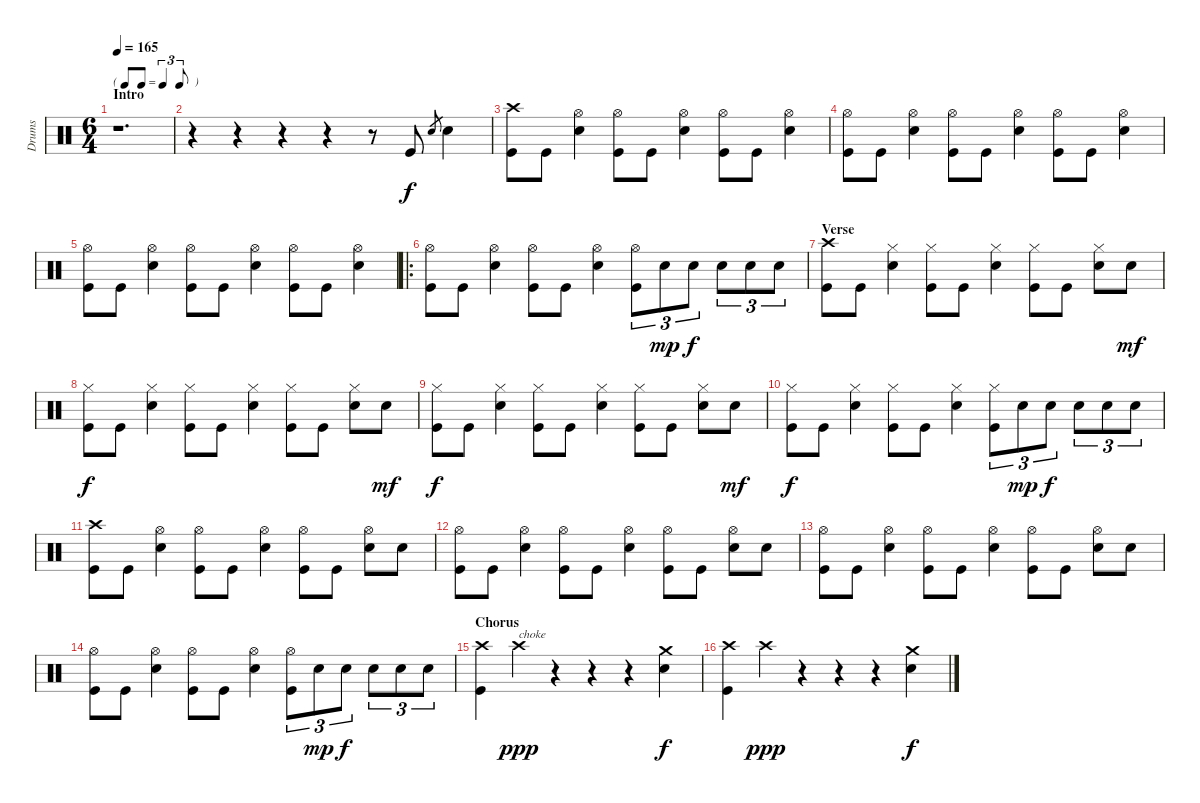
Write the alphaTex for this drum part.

\track ("Drums" "Drums") {instrument percussion}
\staff {score}
\articulation defaults
\ts (6 4)
\tf triplet8th
\section ("" "Intro")
\tempo 165
\clef neutral
\ks c
r.1{d dy f} |
r.4 r.4 r.4 r.4 r.8 "Kick (hit)".8 "Electric Snare (hit)".8{gr} "Electric Snare (hit)".4 |
("Crash high (hit)" "Kick (hit)").8 "Kick (hit)".8 ("Hi-Hat (open)" "Electric Snare (hit)").4 ("Hi-Hat (open)" "Kick (hit)").8 "Kick (hit)".8 ("Hi-Hat (open)" "Electric Snare (hit)").4 ("Hi-Hat (open)" "Kick (hit)").8 "Kick (hit)".8 ("Hi-Hat (open)" "Electric Snare (hit)").4 |
("Hi-Hat (open)" "Kick (hit)").8 "Kick (hit)".8 ("Hi-Hat (open)" "Electric Snare (hit)").4 ("Hi-Hat (open)" "Kick (hit)").8 "Kick (hit)".8 ("Hi-Hat (open)" "Electric Snare (hit)").4 ("Hi-Hat (open)" "Kick (hit)").8 "Kick (hit)".8 ("Hi-Hat (open)" "Electric Snare (hit)").4 |
("Hi-Hat (open)" "Kick (hit)").8 "Kick (hit)".8 ("Hi-Hat (open)" "Electric Snare (hit)").4 ("Hi-Hat (open)" "Kick (hit)").8 "Kick (hit)".8 ("Hi-Hat (open)" "Electric Snare (hit)").4 ("Hi-Hat (open)" "Kick (hit)").8 "Kick (hit)".8 ("Hi-Hat (open)" "Electric Snare (hit)").4 |
\ro
("Hi-Hat (open)" "Kick (hit)").8 "Kick (hit)".8 ("Hi-Hat (open)" "Electric Snare (hit)").4 ("Hi-Hat (open)" "Kick (hit)").8 "Kick (hit)".8 ("Hi-Hat (open)" "Electric Snare (hit)").4 ("Hi-Hat (open)" "Kick (hit)").8{tu (3 2)} "Electric Snare (hit)".8{tu (3 2) dy mp} "Electric Snare (hit)".8{tu (3 2) dy f} "Electric Snare (hit)".8{tu (3 2)} "Electric Snare (hit)".8{tu (3 2)} "Electric Snare (hit)".8{tu (3 2)} |
\section ("" "Verse")
("Crash high (hit)" "Kick (hit)").8 "Kick (hit)".8 ("Hi-Hat (closed)" "Electric Snare (hit)").4 ("Hi-Hat (closed)" "Kick (hit)").8 "Kick (hit)".8 ("Hi-Hat (closed)" "Electric Snare (hit)").4 ("Hi-Hat (closed)" "Kick (hit)").8 "Kick (hit)".8 ("Hi-Hat (closed)" "Electric Snare (hit)").8 "Electric Snare (hit)".8{dy mf} |
("Hi-Hat (closed)" "Kick (hit)").8{dy f} "Kick (hit)".8 ("Hi-Hat (closed)" "Electric Snare (hit)").4 ("Hi-Hat (closed)" "Kick (hit)").8 "Kick (hit)".8 ("Hi-Hat (closed)" "Electric Snare (hit)").4 ("Hi-Hat (closed)" "Kick (hit)").8 "Kick (hit)".8 ("Hi-Hat (closed)" "Electric Snare (hit)").8 "Electric Snare (hit)".8{dy mf} |
("Hi-Hat (closed)" "Kick (hit)").8{dy f} "Kick (hit)".8 ("Hi-Hat (closed)" "Electric Snare (hit)").4 ("Hi-Hat (closed)" "Kick (hit)").8 "Kick (hit)".8 ("Hi-Hat (closed)" "Electric Snare (hit)").4 ("Hi-Hat (closed)" "Kick (hit)").8 "Kick (hit)".8 ("Hi-Hat (closed)" "Electric Snare (hit)").8 "Electric Snare (hit)".8{dy mf} |
("Hi-Hat (closed)" "Kick (hit)").8{dy f} "Kick (hit)".8 ("Hi-Hat (closed)" "Electric Snare (hit)").4 ("Hi-Hat (closed)" "Kick (hit)").8 "Kick (hit)".8 ("Hi-Hat (closed)" "Electric Snare (hit)").4 ("Hi-Hat (closed)" "Kick (hit)").8{tu (3 2)} "Electric Snare (hit)".8{tu (3 2) dy mp} "Electric Snare (hit)".8{tu (3 2) dy f} "Electric Snare (hit)".8{tu (3 2)} "Electric Snare (hit)".8{tu (3 2)} "Electric Snare (hit)".8{tu (3 2)} |
("Crash high (hit)" "Kick (hit)").8 "Kick (hit)".8 ("Hi-Hat (open)" "Electric Snare (hit)").4 ("Hi-Hat (open)" "Kick (hit)").8 "Kick (hit)".8 ("Hi-Hat (open)" "Electric Snare (hit)").4 ("Hi-Hat (open)" "Kick (hit)").8 "Kick (hit)".8 ("Hi-Hat (open)" "Electric Snare (hit)").8 "Electric Snare (hit)".8 |
("Hi-Hat (open)" "Kick (hit)").8 "Kick (hit)".8 ("Hi-Hat (open)" "Electric Snare (hit)").4 ("Hi-Hat (open)" "Kick (hit)").8 "Kick (hit)".8 ("Hi-Hat (open)" "Electric Snare (hit)").4 ("Hi-Hat (open)" "Kick (hit)").8 "Kick (hit)".8 ("Hi-Hat (open)" "Electric Snare (hit)").8 "Electric Snare (hit)".8 |
("Hi-Hat (open)" "Kick (hit)").8 "Kick (hit)".8 ("Hi-Hat (open)" "Electric Snare (hit)").4 ("Hi-Hat (open)" "Kick (hit)").8 "Kick (hit)".8 ("Hi-Hat (open)" "Electric Snare (hit)").4 ("Hi-Hat (open)" "Kick (hit)").8 "Kick (hit)".8 ("Hi-Hat (open)" "Electric Snare (hit)").8 "Electric Snare (hit)".8 |
("Hi-Hat (open)" "Kick (hit)").8 "Kick (hit)".8 ("Hi-Hat (open)" "Electric Snare (hit)").4 ("Hi-Hat (open)" "Kick (hit)").8 "Kick (hit)".8 ("Hi-Hat (open)" "Electric Snare (hit)").4 ("Hi-Hat (open)" "Kick (hit)").8{tu (3 2)} "Electric Snare (hit)".8{tu (3 2) dy mp} "Electric Snare (hit)".8{tu (3 2) dy f} "Electric Snare (hit)".8{tu (3 2)} "Electric Snare (hit)".8{tu (3 2)} "Electric Snare (hit)".8{tu (3 2)} |
\section ("" "Chorus")
("Crash high (hit)" "Kick (hit)").4 "Crash high (hit)".4{txt "choke" dy ppp} r.4 r.4 r.4 ("Crash medium (hit)" "Electric Snare (hit)").4{dy f} |
("Crash high (hit)" "Kick (hit)").4 "Crash high (hit)".4{dy ppp} r.4 r.4 r.4 ("Crash medium (hit)" "Electric Snare (hit)").4{dy f}
